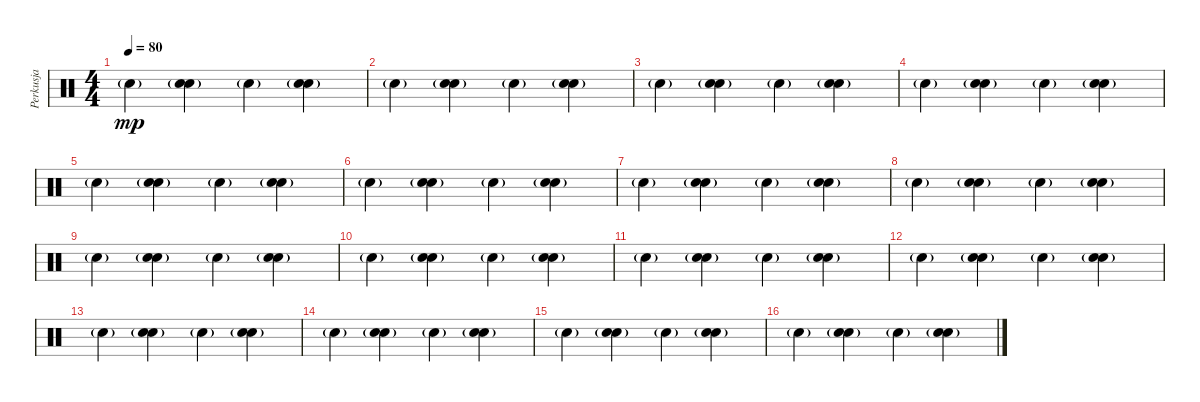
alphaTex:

\track ("Perkusja" "Perkusja") {instrument percussion}
\staff {score}
\articulation defaults
\ts (4 4)
\tempo 80
\clef neutral
\ks c "Electric Snare (hit)"{g}.4{dy mp}
("Electric Snare (hit)"{g} "Snare (hit) 2").4 "Electric Snare (hit)"{g}.4 ("Electric Snare (hit)"{g} "Snare (hit) 2").4 |
"Electric Snare (hit)"{g}.4 ("Electric Snare (hit)"{g} "Snare (hit) 2").4 "Electric Snare (hit)"{g}.4 ("Electric Snare (hit)"{g} "Snare (hit) 2").4 |
"Electric Snare (hit)"{g}.4 ("Electric Snare (hit)"{g} "Snare (hit) 2").4 "Electric Snare (hit)"{g}.4 ("Electric Snare (hit)"{g} "Snare (hit) 2").4 |
"Electric Snare (hit)"{g}.4 ("Electric Snare (hit)"{g} "Snare (hit) 2").4 "Electric Snare (hit)"{g}.4 ("Electric Snare (hit)"{g} "Snare (hit) 2").4 |
"Electric Snare (hit)"{g}.4 ("Electric Snare (hit)"{g} "Snare (hit) 2").4 "Electric Snare (hit)"{g}.4 ("Electric Snare (hit)"{g} "Snare (hit) 2").4 |
"Electric Snare (hit)"{g}.4 ("Electric Snare (hit)"{g} "Snare (hit) 2").4 "Electric Snare (hit)"{g}.4 ("Electric Snare (hit)"{g} "Snare (hit) 2").4 |
"Electric Snare (hit)"{g}.4 ("Electric Snare (hit)"{g} "Snare (hit) 2").4 "Electric Snare (hit)"{g}.4 ("Electric Snare (hit)"{g} "Snare (hit) 2").4 |
"Electric Snare (hit)"{g}.4 ("Electric Snare (hit)"{g} "Snare (hit) 2").4 "Electric Snare (hit)"{g}.4 ("Electric Snare (hit)"{g} "Snare (hit) 2").4 |
"Electric Snare (hit)"{g}.4 ("Electric Snare (hit)"{g} "Snare (hit) 2").4 "Electric Snare (hit)"{g}.4 ("Electric Snare (hit)"{g} "Snare (hit) 2").4 |
"Electric Snare (hit)"{g}.4 ("Electric Snare (hit)"{g} "Snare (hit) 2").4 "Electric Snare (hit)"{g}.4 ("Electric Snare (hit)"{g} "Snare (hit) 2").4 |
"Electric Snare (hit)"{g}.4 ("Electric Snare (hit)"{g} "Snare (hit) 2").4 "Electric Snare (hit)"{g}.4 ("Electric Snare (hit)"{g} "Snare (hit) 2").4 |
"Electric Snare (hit)"{g}.4 ("Electric Snare (hit)"{g} "Snare (hit) 2").4 "Electric Snare (hit)"{g}.4 ("Electric Snare (hit)"{g} "Snare (hit) 2").4 |
"Electric Snare (hit)"{g}.4 ("Electric Snare (hit)"{g} "Snare (hit) 2").4 "Electric Snare (hit)"{g}.4 ("Electric Snare (hit)"{g} "Snare (hit) 2").4 |
"Electric Snare (hit)"{g}.4 ("Electric Snare (hit)"{g} "Snare (hit) 2").4 "Electric Snare (hit)"{g}.4 ("Electric Snare (hit)"{g} "Snare (hit) 2").4 |
"Electric Snare (hit)"{g}.4 ("Electric Snare (hit)"{g} "Snare (hit) 2").4 "Electric Snare (hit)"{g}.4 ("Electric Snare (hit)"{g} "Snare (hit) 2").4 |
"Electric Snare (hit)"{g}.4 ("Electric Snare (hit)"{g} "Snare (hit) 2").4 "Electric Snare (hit)"{g}.4 ("Electric Snare (hit)"{g} "Snare (hit) 2").4
